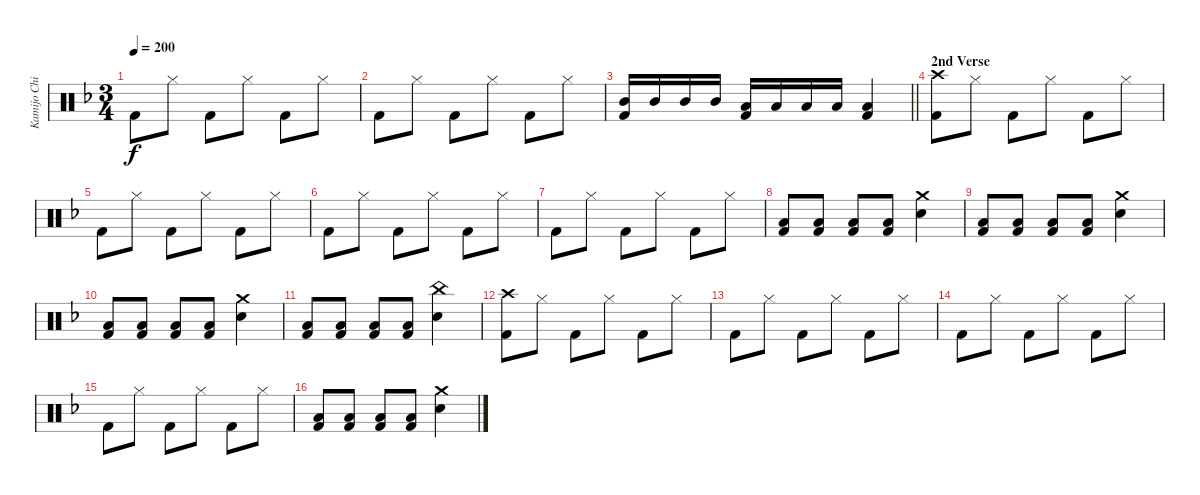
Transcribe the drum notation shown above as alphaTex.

\track ("Kamijo Chihiro" "Kamijo Chi") {instrument percussion}
\staff {score}
\articulation defaults
\ts (3 4)
\tempo 200
\clef neutral
\ks dminor "Kick (hit) 2".8{dy f} "Hi-Hat (closed)".8 "Kick (hit) 2".8 "Hi-Hat (closed)".8 "Kick (hit) 2".8 "Hi-Hat (closed)".8
|
"Kick (hit) 2".8 "Hi-Hat (closed)".8 "Kick (hit) 2".8 "Hi-Hat (closed)".8 "Kick (hit) 2".8 "Hi-Hat (closed)".8 |
\barLineRight lightlight
("Mid Tom (hit)" "Kick (hit) 2").16 "Mid Tom (hit)".16 "Mid Tom (hit)".16 "Mid Tom (hit)".16 ("Low Tom (hit)" "Kick (hit) 2").16 "Low Tom (hit)".16 "Low Tom (hit)".16 "Low Tom (hit)".16 ("Low Floor Tom (hit)" "Kick (hit) 2").4 |
\section ("" "2nd Verse")
("Crash high (hit)" "Kick (hit) 2").8 "Hi-Hat (closed)".8 "Kick (hit) 2".8 "Hi-Hat (closed)".8 "Kick (hit) 2".8 "Hi-Hat (closed)".8 |
"Kick (hit) 2".8 "Hi-Hat (closed)".8 "Kick (hit) 2".8 "Hi-Hat (closed)".8 "Kick (hit) 2".8 "Hi-Hat (closed)".8 |
"Kick (hit) 2".8 "Hi-Hat (closed)".8 "Kick (hit) 2".8 "Hi-Hat (closed)".8 "Kick (hit) 2".8 "Hi-Hat (closed)".8 |
"Kick (hit) 2".8 "Hi-Hat (closed)".8 "Kick (hit) 2".8 "Hi-Hat (closed)".8 "Kick (hit) 2".8 "Hi-Hat (closed)".8 |
("Low Floor Tom (hit)" "Kick (hit) 2").8 ("Low Floor Tom (hit)" "Kick (hit) 2").8 ("Low Floor Tom (hit)" "Kick (hit) 2").8 ("Low Floor Tom (hit)" "Kick (hit) 2").8 ("Crash medium (hit)" "Snare (hit) 2").4 |
("Low Floor Tom (hit)" "Kick (hit) 2").8 ("Low Floor Tom (hit)" "Kick (hit) 2").8 ("Low Floor Tom (hit)" "Kick (hit) 2").8 ("Low Floor Tom (hit)" "Kick (hit) 2").8 ("Crash medium (hit)" "Snare (hit) 2").4 |
("Low Floor Tom (hit)" "Kick (hit) 2").8 ("Low Floor Tom (hit)" "Kick (hit) 2").8 ("Low Floor Tom (hit)" "Kick (hit) 2").8 ("Low Floor Tom (hit)" "Kick (hit) 2").8 ("Crash medium (hit)" "Snare (hit) 2").4 |
("Low Floor Tom (hit)" "Kick (hit) 2").8 ("Low Floor Tom (hit)" "Kick (hit) 2").8 ("Low Floor Tom (hit)" "Kick (hit) 2").8 ("Low Floor Tom (hit)" "Kick (hit) 2").8 ("China (hit)" "Snare (hit) 2").4 |
("Crash high (hit)" "Kick (hit) 2").8 "Hi-Hat (closed)".8 "Kick (hit) 2".8 "Hi-Hat (closed)".8 "Kick (hit) 2".8 "Hi-Hat (closed)".8 |
"Kick (hit) 2".8 "Hi-Hat (closed)".8 "Kick (hit) 2".8 "Hi-Hat (closed)".8 "Kick (hit) 2".8 "Hi-Hat (closed)".8 |
"Kick (hit) 2".8 "Hi-Hat (closed)".8 "Kick (hit) 2".8 "Hi-Hat (closed)".8 "Kick (hit) 2".8 "Hi-Hat (closed)".8 |
"Kick (hit) 2".8 "Hi-Hat (closed)".8 "Kick (hit) 2".8 "Hi-Hat (closed)".8 "Kick (hit) 2".8 "Hi-Hat (closed)".8 |
("Low Floor Tom (hit)" "Kick (hit) 2").8 ("Low Floor Tom (hit)" "Kick (hit) 2").8 ("Low Floor Tom (hit)" "Kick (hit) 2").8 ("Low Floor Tom (hit)" "Kick (hit) 2").8 ("Crash medium (hit)" "Snare (hit) 2").4
